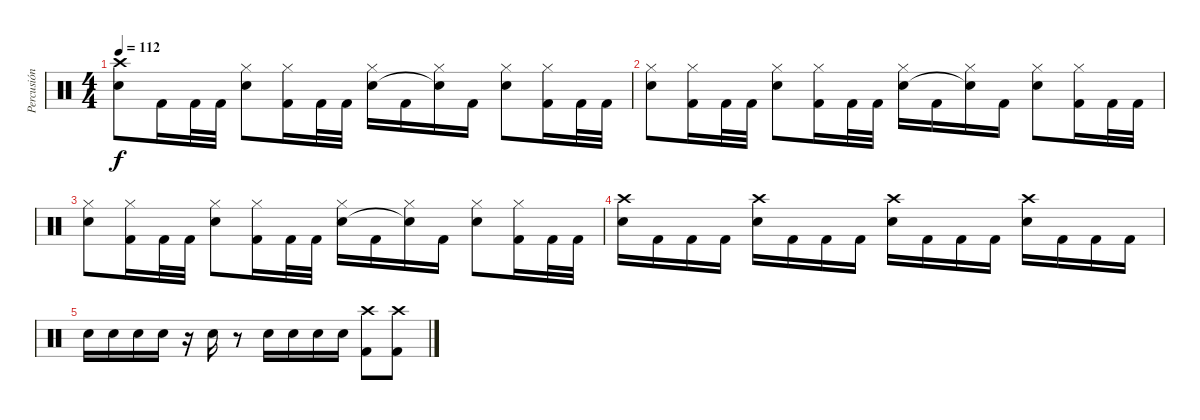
\track ("Percusión" "Percusión") {instrument percussion}
\staff {score}
\articulation defaults
\ts (4 4)
\tempo 112
\clef neutral
\ks c
("Crash high (hit)" "Electric Snare (hit)").8{dy f} "Kick (hit) 2".16 "Kick (hit) 2".32 "Kick (hit) 2".32 ("Hi-Hat (closed)" "Electric Snare (hit)").8 ("Hi-Hat (closed)" "Kick (hit) 2").16 "Kick (hit) 2".32 "Kick (hit) 2".32 ("Hi-Hat (closed)" "Electric Snare (hit)").16 "Kick (hit) 2".16 ("Hi-Hat (closed)" "Snare (hit)"{t}).16 "Kick (hit) 2".16 ("Hi-Hat (closed)" "Electric Snare (hit)").8 ("Hi-Hat (closed)" "Kick (hit) 2").16 "Kick (hit) 2".32 "Kick (hit) 2".32 |
("Hi-Hat (closed)" "Electric Snare (hit)").8 ("Hi-Hat (closed)" "Kick (hit) 2").16 "Kick (hit) 2".32 "Kick (hit) 2".32 ("Hi-Hat (closed)" "Electric Snare (hit)").8 ("Hi-Hat (closed)" "Kick (hit) 2").16 "Kick (hit) 2".32 "Kick (hit) 2".32 ("Hi-Hat (closed)" "Electric Snare (hit)").16 "Kick (hit) 2".16 ("Hi-Hat (closed)" "Snare (hit)"{t}).16 "Kick (hit) 2".16 ("Hi-Hat (closed)" "Electric Snare (hit)").8 ("Hi-Hat (closed)" "Kick (hit) 2").16 "Kick (hit) 2".32 "Kick (hit) 2".32 |
("Hi-Hat (closed)" "Electric Snare (hit)").8 ("Hi-Hat (closed)" "Kick (hit) 2").16 "Kick (hit) 2".32 "Kick (hit) 2".32 ("Hi-Hat (closed)" "Electric Snare (hit)").8 ("Hi-Hat (closed)" "Kick (hit) 2").16 "Kick (hit) 2".32 "Kick (hit) 2".32 ("Hi-Hat (closed)" "Electric Snare (hit)").16 "Kick (hit) 2".16 ("Hi-Hat (closed)" "Snare (hit)"{t}).16 "Kick (hit) 2".16 ("Hi-Hat (closed)" "Electric Snare (hit)").8 ("Hi-Hat (closed)" "Kick (hit) 2").16 "Kick (hit) 2".32 "Kick (hit) 2".32 |
("Crash high (hit)" "Electric Snare (hit)").16 "Kick (hit) 2".16 "Kick (hit) 2".16 "Kick (hit) 2".16 ("Crash high (hit)" "Electric Snare (hit)").16 "Kick (hit) 2".16 "Kick (hit) 2".16 "Kick (hit) 2".16 ("Crash high (hit)" "Electric Snare (hit)").16 "Kick (hit) 2".16 "Kick (hit) 2".16 "Kick (hit) 2".16 ("Crash high (hit)" "Electric Snare (hit)").16 "Kick (hit) 2".16 "Kick (hit) 2".16 "Kick (hit) 2".16 |
"Electric Snare (hit)".16 "Electric Snare (hit)".16 "Electric Snare (hit)".16 "Electric Snare (hit)".16 r.16 "Electric Snare (hit)".16 r.8 "Electric Snare (hit)".16 "Electric Snare (hit)".16 "Electric Snare (hit)".16 "Electric Snare (hit)".16 ("Crash high (hit)" "Kick (hit) 2").8 ("Crash high (hit)" "Kick (hit) 2").8
